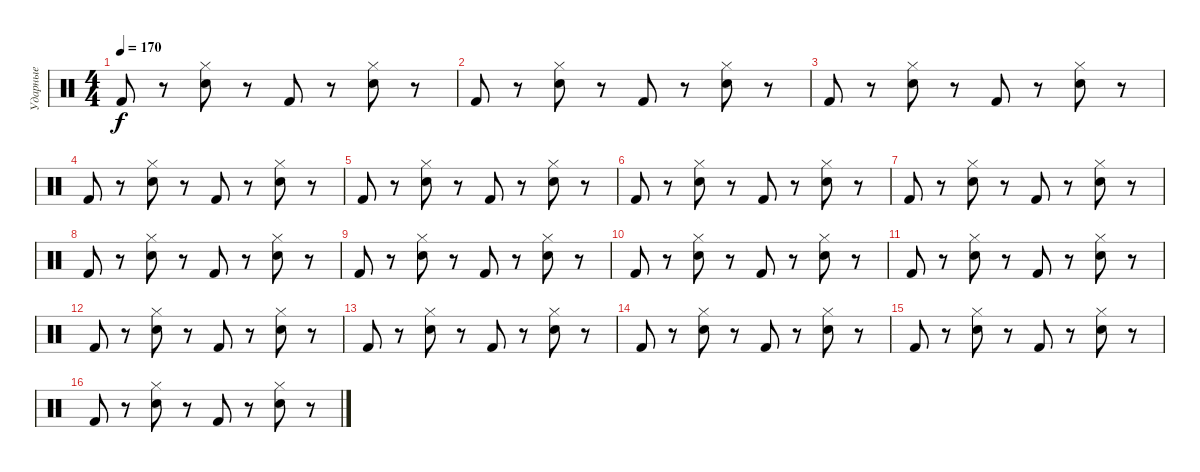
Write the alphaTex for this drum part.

\track ("Ударные" "Ударные") {instrument percussion}
\staff {score}
\articulation defaults
\ts (4 4)
\tempo 170
\clef neutral
\ks c "Kick (hit) 2".8{dy f}
r.8 ("Hi-Hat (closed)" "Electric Snare (hit)").8 r.8 "Kick (hit) 2".8 r.8 ("Hi-Hat (closed)" "Electric Snare (hit)").8 r.8 |
"Kick (hit) 2".8 r.8 ("Hi-Hat (closed)" "Electric Snare (hit)").8 r.8 "Kick (hit) 2".8 r.8 ("Hi-Hat (closed)" "Electric Snare (hit)").8 r.8 |
"Kick (hit) 2".8 r.8 ("Hi-Hat (closed)" "Electric Snare (hit)").8 r.8 "Kick (hit) 2".8 r.8 ("Hi-Hat (closed)" "Electric Snare (hit)").8 r.8 |
"Kick (hit) 2".8 r.8 ("Hi-Hat (closed)" "Electric Snare (hit)").8 r.8 "Kick (hit) 2".8 r.8 ("Hi-Hat (closed)" "Electric Snare (hit)").8 r.8 |
"Kick (hit) 2".8 r.8 ("Hi-Hat (closed)" "Electric Snare (hit)").8 r.8 "Kick (hit) 2".8 r.8 ("Hi-Hat (closed)" "Electric Snare (hit)").8 r.8 |
"Kick (hit) 2".8 r.8 ("Hi-Hat (closed)" "Electric Snare (hit)").8 r.8 "Kick (hit) 2".8 r.8 ("Hi-Hat (closed)" "Electric Snare (hit)").8 r.8 |
"Kick (hit) 2".8 r.8 ("Hi-Hat (closed)" "Electric Snare (hit)").8 r.8 "Kick (hit) 2".8 r.8 ("Hi-Hat (closed)" "Electric Snare (hit)").8 r.8 |
"Kick (hit) 2".8 r.8 ("Hi-Hat (closed)" "Electric Snare (hit)").8 r.8 "Kick (hit) 2".8 r.8 ("Hi-Hat (closed)" "Electric Snare (hit)").8 r.8 |
"Kick (hit) 2".8 r.8 ("Hi-Hat (closed)" "Electric Snare (hit)").8 r.8 "Kick (hit) 2".8 r.8 ("Hi-Hat (closed)" "Electric Snare (hit)").8 r.8 |
"Kick (hit) 2".8 r.8 ("Hi-Hat (closed)" "Electric Snare (hit)").8 r.8 "Kick (hit) 2".8 r.8 ("Hi-Hat (closed)" "Electric Snare (hit)").8 r.8 |
"Kick (hit) 2".8 r.8 ("Hi-Hat (closed)" "Electric Snare (hit)").8 r.8 "Kick (hit) 2".8 r.8 ("Hi-Hat (closed)" "Electric Snare (hit)").8 r.8 |
"Kick (hit) 2".8 r.8 ("Hi-Hat (closed)" "Electric Snare (hit)").8 r.8 "Kick (hit) 2".8 r.8 ("Hi-Hat (closed)" "Electric Snare (hit)").8 r.8 |
"Kick (hit) 2".8 r.8 ("Hi-Hat (closed)" "Electric Snare (hit)").8 r.8 "Kick (hit) 2".8 r.8 ("Hi-Hat (closed)" "Electric Snare (hit)").8 r.8 |
"Kick (hit) 2".8 r.8 ("Hi-Hat (closed)" "Electric Snare (hit)").8 r.8 "Kick (hit) 2".8 r.8 ("Hi-Hat (closed)" "Electric Snare (hit)").8 r.8 |
"Kick (hit) 2".8 r.8 ("Hi-Hat (closed)" "Electric Snare (hit)").8 r.8 "Kick (hit) 2".8 r.8 ("Hi-Hat (closed)" "Electric Snare (hit)").8 r.8 |
"Kick (hit) 2".8 r.8 ("Hi-Hat (closed)" "Electric Snare (hit)").8 r.8 "Kick (hit) 2".8 r.8 ("Hi-Hat (closed)" "Electric Snare (hit)").8 r.8
